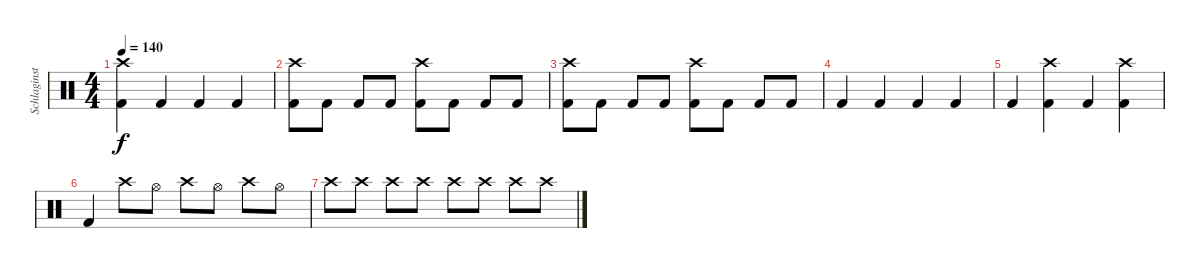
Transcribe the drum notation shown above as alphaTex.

\track ("Schlaginstrumente - Auswahl" "Schlaginst") {instrument percussion}
\staff {score}
\articulation defaults
\ts (4 4)
\tempo 140
\clef neutral
\ks c
("Kick (hit) 2" "Crash high (hit)").4{dy f} "Kick (hit) 2".4 "Kick (hit) 2".4 "Kick (hit) 2".4 |
("Kick (hit) 2" "Crash high (hit)").8 "Kick (hit) 2".8 "Kick (hit) 2".8 "Kick (hit) 2".8 ("Kick (hit) 2" "Crash high (hit)").8 "Kick (hit) 2".8 "Kick (hit) 2".8 "Kick (hit) 2".8 |
("Kick (hit) 2" "Crash high (hit)").8 "Kick (hit) 2".8 "Kick (hit) 2".8 "Kick (hit) 2".8 ("Kick (hit) 2" "Crash high (hit)").8 "Kick (hit) 2".8 "Kick (hit) 2".8 "Kick (hit) 2".8 |
"Kick (hit) 2".4 "Kick (hit) 2".4 "Kick (hit) 2".4 "Kick (hit) 2".4 |
"Kick (hit) 2".4 ("Kick (hit) 2" "Crash high (hit)").4 "Kick (hit) 2".4 ("Kick (hit) 2" "Crash high (hit)").4 |
"Kick (hit) 2".4 "Crash high (hit)".8 "Hi-Hat (open)".8 "Crash high (hit)".8 "Hi-Hat (open)".8 "Crash high (hit)".8 "Hi-Hat (open)".8 |
"Crash high (hit)".8 "Crash high (hit)".8 "Crash high (hit)".8 "Crash high (hit)".8 "Crash high (hit)".8 "Crash high (hit)".8 "Crash high (hit)".8 "Crash high (hit)".8
